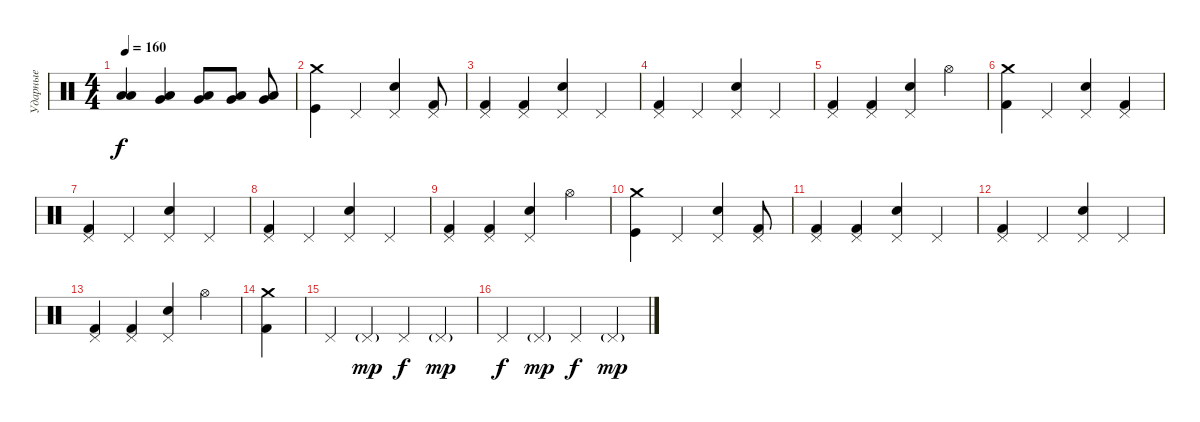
\track ("Ударные" "Ударные") {instrument percussion}
\staff {score}
\articulation defaults
\ts (4 4)
\tempo 160
\clef neutral
\ks c
("Low Tom (hit)" "Low Tom (hit)").4{dy f} ("Very Low Tom (hit)" "Low Floor Tom (hit)").4 ("Very Low Tom (hit)" "Low Floor Tom (hit)").8 ("Low Floor Tom (hit)" "Very Low Tom (hit)").8 ("Very Low Tom (hit)" "Low Floor Tom (hit)").8 |
("Crash medium (hit)" "Kick (hit)").4 "Pedal Hi-Hat (hit)".4 ("Pedal Hi-Hat (hit)" "Snare (hit) 2").4 ("Pedal Hi-Hat (hit)" "Kick (hit) 2").8 |
("Pedal Hi-Hat (hit)" "Kick (hit) 2").4 ("Pedal Hi-Hat (hit)" "Kick (hit) 2").4 ("Pedal Hi-Hat (hit)" "Snare (hit) 2").4 "Pedal Hi-Hat (hit)".4 |
("Pedal Hi-Hat (hit)" "Kick (hit) 2").4 "Pedal Hi-Hat (hit)".4 ("Pedal Hi-Hat (hit)" "Snare (hit) 2").4 "Pedal Hi-Hat (hit)".4 |
("Pedal Hi-Hat (hit)" "Kick (hit) 2").4 ("Pedal Hi-Hat (hit)" "Kick (hit) 2").4 ("Pedal Hi-Hat (hit)" "Snare (hit) 2").4 "Hi-Hat (open)".4 |
("Crash medium (hit)" "Kick (hit) 2").4 "Pedal Hi-Hat (hit)".4 ("Pedal Hi-Hat (hit)" "Snare (hit) 2").4 ("Pedal Hi-Hat (hit)" "Kick (hit) 2").4 |
("Pedal Hi-Hat (hit)" "Kick (hit) 2").4 "Pedal Hi-Hat (hit)".4 ("Pedal Hi-Hat (hit)" "Snare (hit) 2").4 "Pedal Hi-Hat (hit)".4 |
("Pedal Hi-Hat (hit)" "Kick (hit) 2").4 "Pedal Hi-Hat (hit)".4 ("Pedal Hi-Hat (hit)" "Snare (hit) 2").4 "Pedal Hi-Hat (hit)".4 |
("Pedal Hi-Hat (hit)" "Kick (hit) 2").4 ("Pedal Hi-Hat (hit)" "Kick (hit) 2").4 ("Pedal Hi-Hat (hit)" "Snare (hit) 2").4 "Hi-Hat (open)".4 |
("Crash medium (hit)" "Kick (hit)").4 "Pedal Hi-Hat (hit)".4 ("Pedal Hi-Hat (hit)" "Snare (hit) 2").4 ("Pedal Hi-Hat (hit)" "Kick (hit) 2").8 |
("Pedal Hi-Hat (hit)" "Kick (hit) 2").4 ("Pedal Hi-Hat (hit)" "Kick (hit) 2").4 ("Pedal Hi-Hat (hit)" "Snare (hit) 2").4 "Pedal Hi-Hat (hit)".4 |
("Pedal Hi-Hat (hit)" "Kick (hit) 2").4 "Pedal Hi-Hat (hit)".4 ("Pedal Hi-Hat (hit)" "Snare (hit) 2").4 "Pedal Hi-Hat (hit)".4 |
("Pedal Hi-Hat (hit)" "Kick (hit) 2").4 ("Pedal Hi-Hat (hit)" "Kick (hit) 2").4 ("Pedal Hi-Hat (hit)" "Snare (hit) 2").4 "Hi-Hat (open)".4 |
("Crash medium (hit)" "Kick (hit) 2").4 |
"Pedal Hi-Hat (hit)".4 "Pedal Hi-Hat (hit)"{g}.4{dy mp} "Pedal Hi-Hat (hit)".4{dy f} "Pedal Hi-Hat (hit)"{g}.4{dy mp} |
"Pedal Hi-Hat (hit)".4{dy f} "Pedal Hi-Hat (hit)"{g}.4{dy mp} "Pedal Hi-Hat (hit)".4{dy f} "Pedal Hi-Hat (hit)"{g}.4{dy mp}
